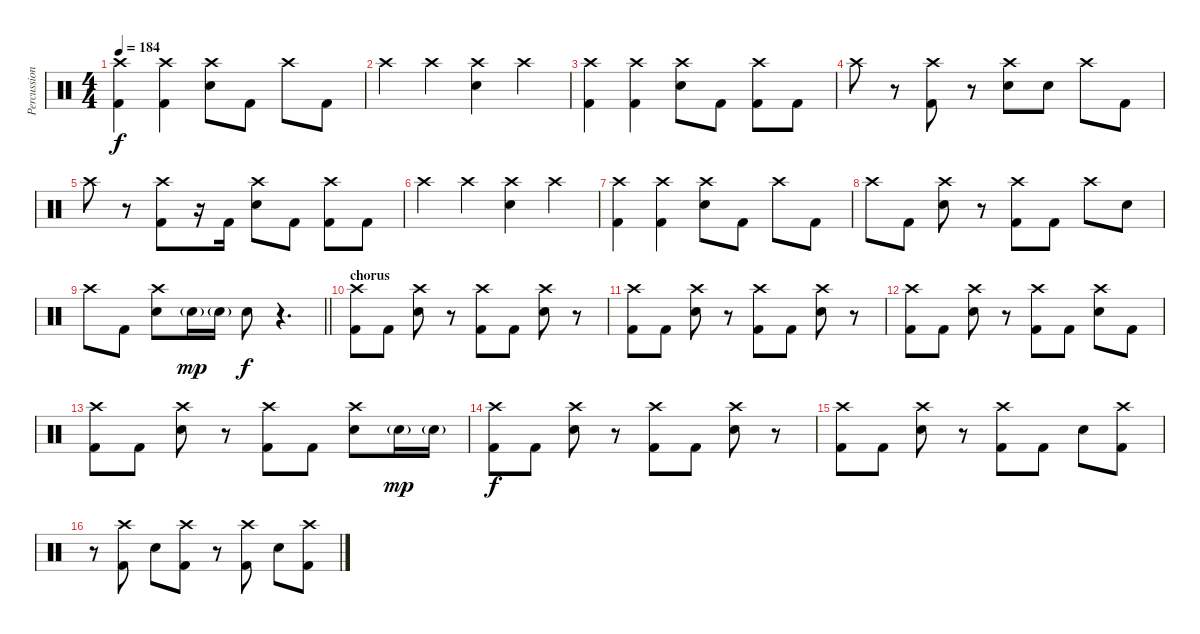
\track ("Percussion" "Percussion") {instrument percussion}
\staff {score}
\articulation defaults
\ts (4 4)
\tempo 184
\clef neutral
\ks c
("Crash high (hit)" "Kick (hit) 2").4{dy f} ("Crash high (hit)" "Kick (hit) 2").4 ("Crash high (hit)" "Electric Snare (hit)").8 "Kick (hit) 2".8 "Crash high (hit)".8 "Kick (hit) 2".8 |
"Crash high (hit)".4 "Crash high (hit)".4 ("Crash high (hit)" "Electric Snare (hit)").4 "Crash high (hit)".4 |
("Crash high (hit)" "Kick (hit) 2").4 ("Crash high (hit)" "Kick (hit) 2").4 ("Crash high (hit)" "Electric Snare (hit)").8 "Kick (hit) 2".8 ("Crash high (hit)" "Kick (hit) 2").8 "Kick (hit) 2".8 |
"Crash high (hit)".8 r.8 ("Crash high (hit)" "Kick (hit) 2").8 r.8 ("Crash high (hit)" "Electric Snare (hit)").8 "Electric Snare (hit)".8 "Crash high (hit)".8 "Kick (hit) 2".8 |
"Crash high (hit)".8 r.8 ("Crash high (hit)" "Kick (hit) 2").8 r.16 "Kick (hit) 2".16 ("Crash high (hit)" "Electric Snare (hit)").8 "Kick (hit) 2".8 ("Crash high (hit)" "Kick (hit) 2").8 "Kick (hit) 2".8 |
"Crash high (hit)".4 "Crash high (hit)".4 ("Crash high (hit)" "Electric Snare (hit)").4 "Crash high (hit)".4 |
("Crash high (hit)" "Kick (hit) 2").4 ("Crash high (hit)" "Kick (hit) 2").4 ("Crash high (hit)" "Electric Snare (hit)").8 "Kick (hit) 2".8 "Crash high (hit)".8 "Kick (hit) 2".8 |
"Crash high (hit)".8 "Kick (hit) 2".8 ("Crash high (hit)" "Electric Snare (hit)").8 r.8 ("Crash high (hit)" "Kick (hit) 2").8 "Kick (hit) 2".8 "Crash high (hit)".8 "Electric Snare (hit)".8 |
\barLineRight lightlight "Crash high (hit)".8 "Kick (hit) 2".8
("Crash high (hit)" "Electric Snare (hit)").8 "Electric Snare (hit)"{g}.16{dy mp} "Electric Snare (hit)"{g}.16 "Electric Snare (hit)".8{dy f} r.4{d} |
\section ("" "chorus")
("Crash high (hit)" "Kick (hit) 2").8 "Kick (hit) 2".8 ("Crash high (hit)" "Electric Snare (hit)").8 r.8 ("Crash high (hit)" "Kick (hit) 2").8 "Kick (hit) 2".8 ("Crash high (hit)" "Electric Snare (hit)").8 r.8 |
("Crash high (hit)" "Kick (hit) 2").8 "Kick (hit) 2".8 ("Crash high (hit)" "Electric Snare (hit)").8 r.8 ("Crash high (hit)" "Kick (hit) 2").8 "Kick (hit) 2".8 ("Crash high (hit)" "Electric Snare (hit)").8 r.8 |
("Crash high (hit)" "Kick (hit) 2").8 "Kick (hit) 2".8 ("Crash high (hit)" "Electric Snare (hit)").8 r.8 ("Crash high (hit)" "Kick (hit) 2").8 "Kick (hit) 2".8 ("Crash high (hit)" "Electric Snare (hit)").8 "Kick (hit) 2".8 |
("Crash high (hit)" "Kick (hit) 2").8 "Kick (hit) 2".8 ("Crash high (hit)" "Electric Snare (hit)").8 r.8 ("Crash high (hit)" "Kick (hit) 2").8 "Kick (hit) 2".8 ("Crash high (hit)" "Electric Snare (hit)").8 "Electric Snare (hit)"{g}.16{dy mp} "Electric Snare (hit)"{g}.16 |
("Crash high (hit)" "Kick (hit) 2").8{dy f} "Kick (hit) 2".8 ("Crash high (hit)" "Electric Snare (hit)").8 r.8 ("Crash high (hit)" "Kick (hit) 2").8 "Kick (hit) 2".8 ("Crash high (hit)" "Electric Snare (hit)").8 r.8 |
("Crash high (hit)" "Kick (hit) 2").8 "Kick (hit) 2".8 ("Crash high (hit)" "Electric Snare (hit)").8 r.8 ("Crash high (hit)" "Kick (hit) 2").8 "Kick (hit) 2".8 "Electric Snare (hit)".8 ("Crash high (hit)" "Kick (hit) 2").8 |
r.8 ("Crash high (hit)" "Kick (hit) 2").8 "Electric Snare (hit)".8 ("Crash high (hit)" "Kick (hit) 2").8 r.8 ("Crash high (hit)" "Kick (hit) 2").8 "Electric Snare (hit)".8 ("Crash high (hit)" "Kick (hit) 2").8
